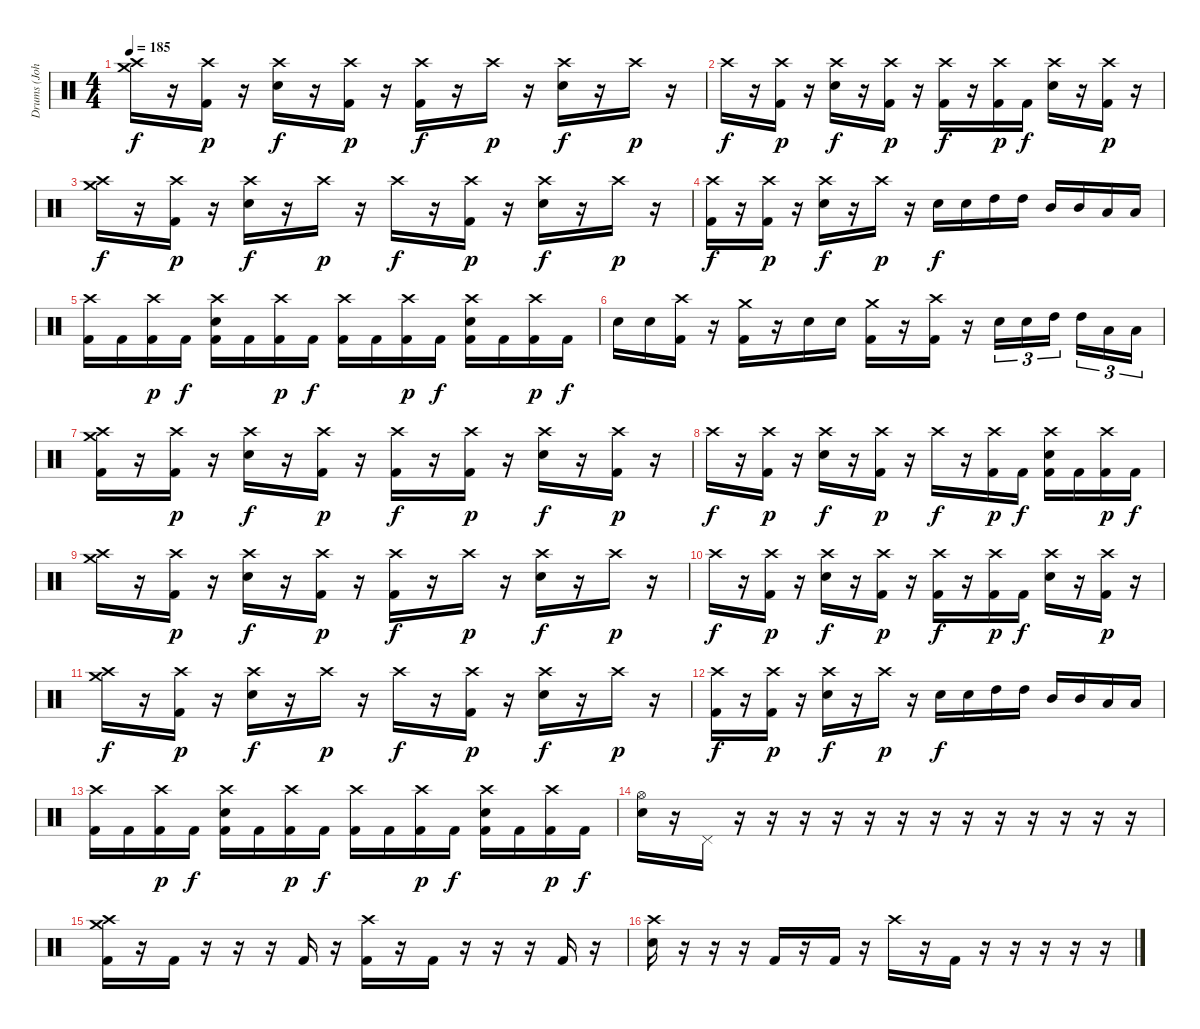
\track ("Drums (Johno)" "Drums (Joh") {instrument percussion}
\staff {score}
\articulation defaults
\ts (4 4)
\tempo 185
\clef neutral
\ks c
("Crash medium (hit)" "Crash high (hit)").16{dy f} r.16 ("Crash high (hit)" "Kick (hit) 2").16{dy p} r.16 ("Crash high (hit)" "Electric Snare (hit)").16{dy f} r.16 ("Crash high (hit)" "Kick (hit) 2").16{dy p} r.16 ("Crash high (hit)" "Kick (hit) 2").16{dy f} r.16 "Crash high (hit)".16{dy p} r.16 ("Crash high (hit)" "Electric Snare (hit)").16{dy f} r.16 "Crash high (hit)".16{dy p} r.16 |
"Crash high (hit)".16{dy f} r.16 ("Crash high (hit)" "Kick (hit) 2").16{dy p} r.16 ("Crash high (hit)" "Electric Snare (hit)").16{dy f} r.16 ("Crash high (hit)" "Kick (hit) 2").16{dy p} r.16 ("Crash high (hit)" "Kick (hit) 2").16{dy f} r.16 ("Crash high (hit)" "Kick (hit) 2").16{dy p} "Kick (hit) 2".16{dy f} ("Crash high (hit)" "Electric Snare (hit)").16 r.16 ("Crash high (hit)" "Kick (hit) 2").16{dy p} r.16 |
("Crash medium (hit)" "Crash high (hit)").16{dy f} r.16 ("Crash high (hit)" "Kick (hit) 2").16{dy p} r.16 ("Crash high (hit)" "Electric Snare (hit)").16{dy f} r.16 "Crash high (hit)".16{dy p} r.16 "Crash high (hit)".16{dy f} r.16 ("Crash high (hit)" "Kick (hit) 2").16{dy p} r.16 ("Crash high (hit)" "Electric Snare (hit)").16{dy f} r.16 "Crash high (hit)".16{dy p} r.16 |
("Crash high (hit)" "Kick (hit) 2").16{dy f} r.16 ("Crash high (hit)" "Kick (hit) 2").16{dy p} r.16 ("Crash high (hit)" "Electric Snare (hit)").16{dy f} r.16 "Crash high (hit)".16{dy p} r.16 "Electric Snare (hit)".16{dy f} "Electric Snare (hit)".16 "High Tom (hit)".16 "High Tom (hit)".16 "Mid Tom (hit)".16 "Mid Tom (hit)".16 "Low Floor Tom (hit)".16 "Low Floor Tom (hit)".16 |
("Crash high (hit)" "Kick (hit) 2").16 "Kick (hit) 2".16 ("Crash high (hit)" "Kick (hit) 2").16{dy p} "Kick (hit) 2".16{dy f} ("Crash high (hit)" "Electric Snare (hit)" "Kick (hit) 2").16 "Kick (hit) 2".16 ("Crash high (hit)" "Kick (hit) 2").16{dy p} "Kick (hit) 2".16{dy f} ("Crash high (hit)" "Kick (hit) 2").16 "Kick (hit) 2".16 ("Crash high (hit)" "Kick (hit) 2").16{dy p} "Kick (hit) 2".16{dy f} ("Crash high (hit)" "Electric Snare (hit)" "Kick (hit) 2").16 "Kick (hit) 2".16 ("Crash high (hit)" "Kick (hit) 2").16{dy p} "Kick (hit) 2".16{dy f} |
"Electric Snare (hit)".16 "Electric Snare (hit)".16 ("Crash high (hit)" "Kick (hit) 2").16 r.16 ("Crash medium (hit)" "Kick (hit) 2").16 r.16 "Electric Snare (hit)".16 "Electric Snare (hit)".16 ("Crash medium (hit)" "Kick (hit) 2").16 r.16 ("Crash high (hit)" "Kick (hit) 2").16 r.16 "Electric Snare (hit)".16{tu (3 2)} "Electric Snare (hit)".16{tu (3 2)} "High Tom (hit)".16{tu (3 2) beam splitsecondary} "High Tom (hit)".16{tu (3 2)} "Low Floor Tom (hit)".16{tu (3 2)} "Low Floor Tom (hit)".16{tu (3 2)} |
("Crash medium (hit)" "Crash high (hit)" "Kick (hit) 2").16 r.16 ("Crash high (hit)" "Kick (hit) 2").16{dy p} r.16 ("Crash high (hit)" "Electric Snare (hit)").16{dy f} r.16 ("Crash high (hit)" "Kick (hit) 2").16{dy p} r.16 ("Crash high (hit)" "Kick (hit) 2").16{dy f} r.16 ("Crash high (hit)" "Kick (hit) 2").16{dy p} r.16 ("Crash high (hit)" "Electric Snare (hit)").16{dy f} r.16 ("Crash high (hit)" "Kick (hit) 2").16{dy p} r.16 |
"Crash high (hit)".16{dy f} r.16 ("Crash high (hit)" "Kick (hit) 2").16{dy p} r.16 ("Crash high (hit)" "Electric Snare (hit)").16{dy f} r.16 ("Crash high (hit)" "Kick (hit) 2").16{dy p} r.16 "Crash high (hit)".16{dy f} r.16 ("Crash high (hit)" "Kick (hit) 2").16{dy p} "Kick (hit) 2".16{dy f} ("Crash high (hit)" "Electric Snare (hit)" "Kick (hit) 2").16 "Kick (hit) 2".16 ("Crash high (hit)" "Kick (hit) 2").16{dy p} "Kick (hit) 2".16{dy f} |
("Crash medium (hit)" "Crash high (hit)").16 r.16 ("Crash high (hit)" "Kick (hit) 2").16{dy p} r.16 ("Crash high (hit)" "Electric Snare (hit)").16{dy f} r.16 ("Crash high (hit)" "Kick (hit) 2").16{dy p} r.16 ("Crash high (hit)" "Kick (hit) 2").16{dy f} r.16 "Crash high (hit)".16{dy p} r.16 ("Crash high (hit)" "Electric Snare (hit)").16{dy f} r.16 "Crash high (hit)".16{dy p} r.16 |
"Crash high (hit)".16{dy f} r.16 ("Crash high (hit)" "Kick (hit) 2").16{dy p} r.16 ("Crash high (hit)" "Electric Snare (hit)").16{dy f} r.16 ("Crash high (hit)" "Kick (hit) 2").16{dy p} r.16 ("Crash high (hit)" "Kick (hit) 2").16{dy f} r.16 ("Crash high (hit)" "Kick (hit) 2").16{dy p} "Kick (hit) 2".16{dy f} ("Crash high (hit)" "Electric Snare (hit)").16 r.16 ("Crash high (hit)" "Kick (hit) 2").16{dy p} r.16 |
("Crash medium (hit)" "Crash high (hit)").16{dy f} r.16 ("Crash high (hit)" "Kick (hit) 2").16{dy p} r.16 ("Crash high (hit)" "Electric Snare (hit)").16{dy f} r.16 "Crash high (hit)".16{dy p} r.16 "Crash high (hit)".16{dy f} r.16 ("Crash high (hit)" "Kick (hit) 2").16{dy p} r.16 ("Crash high (hit)" "Electric Snare (hit)").16{dy f} r.16 "Crash high (hit)".16{dy p} r.16 |
("Crash high (hit)" "Kick (hit) 2").16{dy f} r.16 ("Crash high (hit)" "Kick (hit) 2").16{dy p} r.16 ("Crash high (hit)" "Electric Snare (hit)").16{dy f} r.16 "Crash high (hit)".16{dy p} r.16 "Electric Snare (hit)".16{dy f} "Electric Snare (hit)".16 "High Tom (hit)".16 "High Tom (hit)".16 "Mid Tom (hit)".16 "Mid Tom (hit)".16 "Low Floor Tom (hit)".16 "Low Floor Tom (hit)".16 |
("Crash high (hit)" "Kick (hit) 2").16 "Kick (hit) 2".16 ("Crash high (hit)" "Kick (hit) 2").16{dy p} "Kick (hit) 2".16{dy f} ("Crash high (hit)" "Electric Snare (hit)" "Kick (hit) 2").16 "Kick (hit) 2".16 ("Crash high (hit)" "Kick (hit) 2").16{dy p} "Kick (hit) 2".16{dy f} ("Crash high (hit)" "Kick (hit) 2").16 "Kick (hit) 2".16 ("Crash high (hit)" "Kick (hit) 2").16{dy p} "Kick (hit) 2".16{dy f} ("Crash high (hit)" "Electric Snare (hit)" "Kick (hit) 2").16 "Kick (hit) 2".16 ("Crash high (hit)" "Kick (hit) 2").16{dy p} "Kick (hit) 2".16{dy f} |
("Hi-Hat (open)" "Electric Snare (hit)").16 r.16 "Pedal Hi-Hat (hit)".16 r.16 r.16 r.16 r.16 r.16 r.16 r.16 r.16 r.16 r.16 r.16 r.16 r.16 |
("Crash medium (hit)" "Crash high (hit)" "Kick (hit) 2").16 r.16 "Kick (hit) 2".16 r.16 r.16 r.16 "Kick (hit) 2".16 r.16 ("Crash high (hit)" "Kick (hit) 2").16 r.16 "Kick (hit) 2".16 r.16 r.16 r.16 "Kick (hit) 2".16 r.16 |
("Crash high (hit)" "Electric Snare (hit)").16 r.16 r.16 r.16 "Kick (hit) 2".16 r.16 "Kick (hit) 2".16 r.16 "Crash high (hit)".16 r.16 "Kick (hit) 2".16 r.16 r.16 r.16 r.16 r.16
